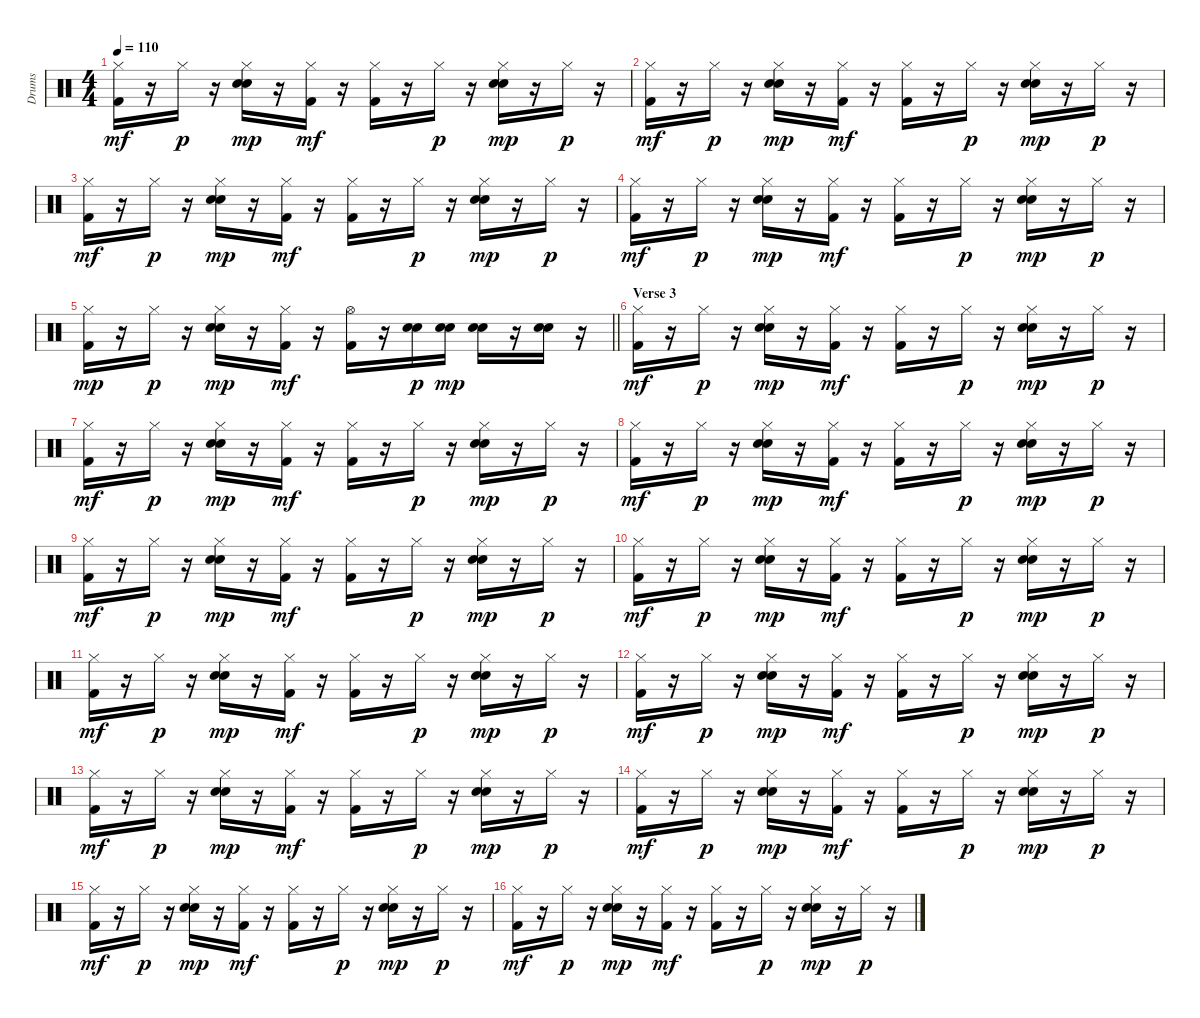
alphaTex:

\track ("Drums" "Drums") {instrument percussion}
\staff {score}
\articulation defaults
\ts (4 4)
\tempo 110
\clef neutral
\ks c
("Hi-Hat (closed)" "Kick (hit) 2").16{dy mf} r.16 "Hi-Hat (closed)".16{dy p} r.16 ("Hi-Hat (closed)" "Electric Snare (hit)" "Snare (hit) 2").16{dy mp} r.16 ("Hi-Hat (closed)" "Kick (hit) 2").16{dy mf} r.16 ("Hi-Hat (closed)" "Kick (hit) 2").16 r.16 "Hi-Hat (closed)".16{dy p} r.16 ("Hi-Hat (closed)" "Electric Snare (hit)" "Snare (hit) 2").16{dy mp} r.16 "Hi-Hat (closed)".16{dy p} r.16 |
("Hi-Hat (closed)" "Kick (hit) 2").16{dy mf} r.16 "Hi-Hat (closed)".16{dy p} r.16 ("Hi-Hat (closed)" "Electric Snare (hit)" "Snare (hit) 2").16{dy mp} r.16 ("Hi-Hat (closed)" "Kick (hit) 2").16{dy mf} r.16 ("Hi-Hat (closed)" "Kick (hit) 2").16 r.16 "Hi-Hat (closed)".16{dy p} r.16 ("Hi-Hat (closed)" "Electric Snare (hit)" "Snare (hit) 2").16{dy mp} r.16 "Hi-Hat (closed)".16{dy p} r.16 |
("Hi-Hat (closed)" "Kick (hit) 2").16{dy mf} r.16 "Hi-Hat (closed)".16{dy p} r.16 ("Hi-Hat (closed)" "Electric Snare (hit)" "Snare (hit) 2").16{dy mp} r.16 ("Hi-Hat (closed)" "Kick (hit) 2").16{dy mf} r.16 ("Hi-Hat (closed)" "Kick (hit) 2").16 r.16 "Hi-Hat (closed)".16{dy p} r.16 ("Hi-Hat (closed)" "Electric Snare (hit)" "Snare (hit) 2").16{dy mp} r.16 "Hi-Hat (closed)".16{dy p} r.16 |
("Hi-Hat (closed)" "Kick (hit) 2").16{dy mf} r.16 "Hi-Hat (closed)".16{dy p} r.16 ("Hi-Hat (closed)" "Electric Snare (hit)" "Snare (hit) 2").16{dy mp} r.16 ("Hi-Hat (closed)" "Kick (hit) 2").16{dy mf} r.16 ("Hi-Hat (closed)" "Kick (hit) 2").16 r.16 "Hi-Hat (closed)".16{dy p} r.16 ("Hi-Hat (closed)" "Electric Snare (hit)" "Snare (hit) 2").16{dy mp} r.16 "Hi-Hat (closed)".16{dy p} r.16 |
\barLineRight lightlight
("Hi-Hat (closed)" "Kick (hit) 2").16{dy mp} r.16 "Hi-Hat (closed)".16{dy p} r.16 ("Hi-Hat (closed)" "Electric Snare (hit)" "Snare (hit) 2").16{dy mp} r.16 ("Hi-Hat (closed)" "Kick (hit) 2").16{dy mf} r.16 ("Hi-Hat (open)" "Kick (hit) 2").16 r.16 ("Electric Snare (hit)" "Snare (hit) 2").16{dy p} ("Electric Snare (hit)" "Snare (hit) 2").16{dy mp} ("Electric Snare (hit)" "Snare (hit) 2").16 r.16 ("Electric Snare (hit)" "Snare (hit) 2").16 r.16 |
\section ("" "Verse 3")
("Hi-Hat (closed)" "Kick (hit) 2").16{dy mf} r.16 "Hi-Hat (closed)".16{dy p} r.16 ("Hi-Hat (closed)" "Electric Snare (hit)" "Snare (hit) 2").16{dy mp} r.16 ("Hi-Hat (closed)" "Kick (hit) 2").16{dy mf} r.16 ("Hi-Hat (closed)" "Kick (hit) 2").16 r.16 "Hi-Hat (closed)".16{dy p} r.16 ("Hi-Hat (closed)" "Electric Snare (hit)" "Snare (hit) 2").16{dy mp} r.16 "Hi-Hat (closed)".16{dy p} r.16 |
("Hi-Hat (closed)" "Kick (hit) 2").16{dy mf} r.16 "Hi-Hat (closed)".16{dy p} r.16 ("Hi-Hat (closed)" "Electric Snare (hit)" "Snare (hit) 2").16{dy mp} r.16 ("Hi-Hat (closed)" "Kick (hit) 2").16{dy mf} r.16 ("Hi-Hat (closed)" "Kick (hit) 2").16 r.16 "Hi-Hat (closed)".16{dy p} r.16 ("Hi-Hat (closed)" "Electric Snare (hit)" "Snare (hit) 2").16{dy mp} r.16 "Hi-Hat (closed)".16{dy p} r.16 |
("Hi-Hat (closed)" "Kick (hit) 2").16{dy mf} r.16 "Hi-Hat (closed)".16{dy p} r.16 ("Hi-Hat (closed)" "Electric Snare (hit)" "Snare (hit) 2").16{dy mp} r.16 ("Hi-Hat (closed)" "Kick (hit) 2").16{dy mf} r.16 ("Hi-Hat (closed)" "Kick (hit) 2").16 r.16 "Hi-Hat (closed)".16{dy p} r.16 ("Hi-Hat (closed)" "Electric Snare (hit)" "Snare (hit) 2").16{dy mp} r.16 "Hi-Hat (closed)".16{dy p} r.16 |
("Hi-Hat (closed)" "Kick (hit) 2").16{dy mf} r.16 "Hi-Hat (closed)".16{dy p} r.16 ("Hi-Hat (closed)" "Electric Snare (hit)" "Snare (hit) 2").16{dy mp} r.16 ("Hi-Hat (closed)" "Kick (hit) 2").16{dy mf} r.16 ("Hi-Hat (closed)" "Kick (hit) 2").16 r.16 "Hi-Hat (closed)".16{dy p} r.16 ("Hi-Hat (closed)" "Electric Snare (hit)" "Snare (hit) 2").16{dy mp} r.16 "Hi-Hat (closed)".16{dy p} r.16 |
("Hi-Hat (closed)" "Kick (hit) 2").16{dy mf} r.16 "Hi-Hat (closed)".16{dy p} r.16 ("Hi-Hat (closed)" "Electric Snare (hit)" "Snare (hit) 2").16{dy mp} r.16 ("Hi-Hat (closed)" "Kick (hit) 2").16{dy mf} r.16 ("Hi-Hat (closed)" "Kick (hit) 2").16 r.16 "Hi-Hat (closed)".16{dy p} r.16 ("Hi-Hat (closed)" "Electric Snare (hit)" "Snare (hit) 2").16{dy mp} r.16 "Hi-Hat (closed)".16{dy p} r.16 |
("Hi-Hat (closed)" "Kick (hit) 2").16{dy mf} r.16 "Hi-Hat (closed)".16{dy p} r.16 ("Hi-Hat (closed)" "Electric Snare (hit)" "Snare (hit) 2").16{dy mp} r.16 ("Hi-Hat (closed)" "Kick (hit) 2").16{dy mf} r.16 ("Hi-Hat (closed)" "Kick (hit) 2").16 r.16 "Hi-Hat (closed)".16{dy p} r.16 ("Hi-Hat (closed)" "Electric Snare (hit)" "Snare (hit) 2").16{dy mp} r.16 "Hi-Hat (closed)".16{dy p} r.16 |
("Hi-Hat (closed)" "Kick (hit) 2").16{dy mf} r.16 "Hi-Hat (closed)".16{dy p} r.16 ("Hi-Hat (closed)" "Electric Snare (hit)" "Snare (hit) 2").16{dy mp} r.16 ("Hi-Hat (closed)" "Kick (hit) 2").16{dy mf} r.16 ("Hi-Hat (closed)" "Kick (hit) 2").16 r.16 "Hi-Hat (closed)".16{dy p} r.16 ("Hi-Hat (closed)" "Electric Snare (hit)" "Snare (hit) 2").16{dy mp} r.16 "Hi-Hat (closed)".16{dy p} r.16 |
("Hi-Hat (closed)" "Kick (hit) 2").16{dy mf} r.16 "Hi-Hat (closed)".16{dy p} r.16 ("Hi-Hat (closed)" "Electric Snare (hit)" "Snare (hit) 2").16{dy mp} r.16 ("Hi-Hat (closed)" "Kick (hit) 2").16{dy mf} r.16 ("Hi-Hat (closed)" "Kick (hit) 2").16 r.16 "Hi-Hat (closed)".16{dy p} r.16 ("Hi-Hat (closed)" "Electric Snare (hit)" "Snare (hit) 2").16{dy mp} r.16 "Hi-Hat (closed)".16{dy p} r.16 |
("Hi-Hat (closed)" "Kick (hit) 2").16{dy mf} r.16 "Hi-Hat (closed)".16{dy p} r.16 ("Hi-Hat (closed)" "Electric Snare (hit)" "Snare (hit) 2").16{dy mp} r.16 ("Hi-Hat (closed)" "Kick (hit) 2").16{dy mf} r.16 ("Hi-Hat (closed)" "Kick (hit) 2").16 r.16 "Hi-Hat (closed)".16{dy p} r.16 ("Hi-Hat (closed)" "Electric Snare (hit)" "Snare (hit) 2").16{dy mp} r.16 "Hi-Hat (closed)".16{dy p} r.16 |
("Hi-Hat (closed)" "Kick (hit) 2").16{dy mf} r.16 "Hi-Hat (closed)".16{dy p} r.16 ("Hi-Hat (closed)" "Electric Snare (hit)" "Snare (hit) 2").16{dy mp} r.16 ("Hi-Hat (closed)" "Kick (hit) 2").16{dy mf} r.16 ("Hi-Hat (closed)" "Kick (hit) 2").16 r.16 "Hi-Hat (closed)".16{dy p} r.16 ("Hi-Hat (closed)" "Electric Snare (hit)" "Snare (hit) 2").16{dy mp} r.16 "Hi-Hat (closed)".16{dy p} r.16 |
("Hi-Hat (closed)" "Kick (hit) 2").16{dy mf} r.16 "Hi-Hat (closed)".16{dy p} r.16 ("Hi-Hat (closed)" "Electric Snare (hit)" "Snare (hit) 2").16{dy mp} r.16 ("Hi-Hat (closed)" "Kick (hit) 2").16{dy mf} r.16 ("Hi-Hat (closed)" "Kick (hit) 2").16 r.16 "Hi-Hat (closed)".16{dy p} r.16 ("Hi-Hat (closed)" "Electric Snare (hit)" "Snare (hit) 2").16{dy mp} r.16 "Hi-Hat (closed)".16{dy p} r.16
